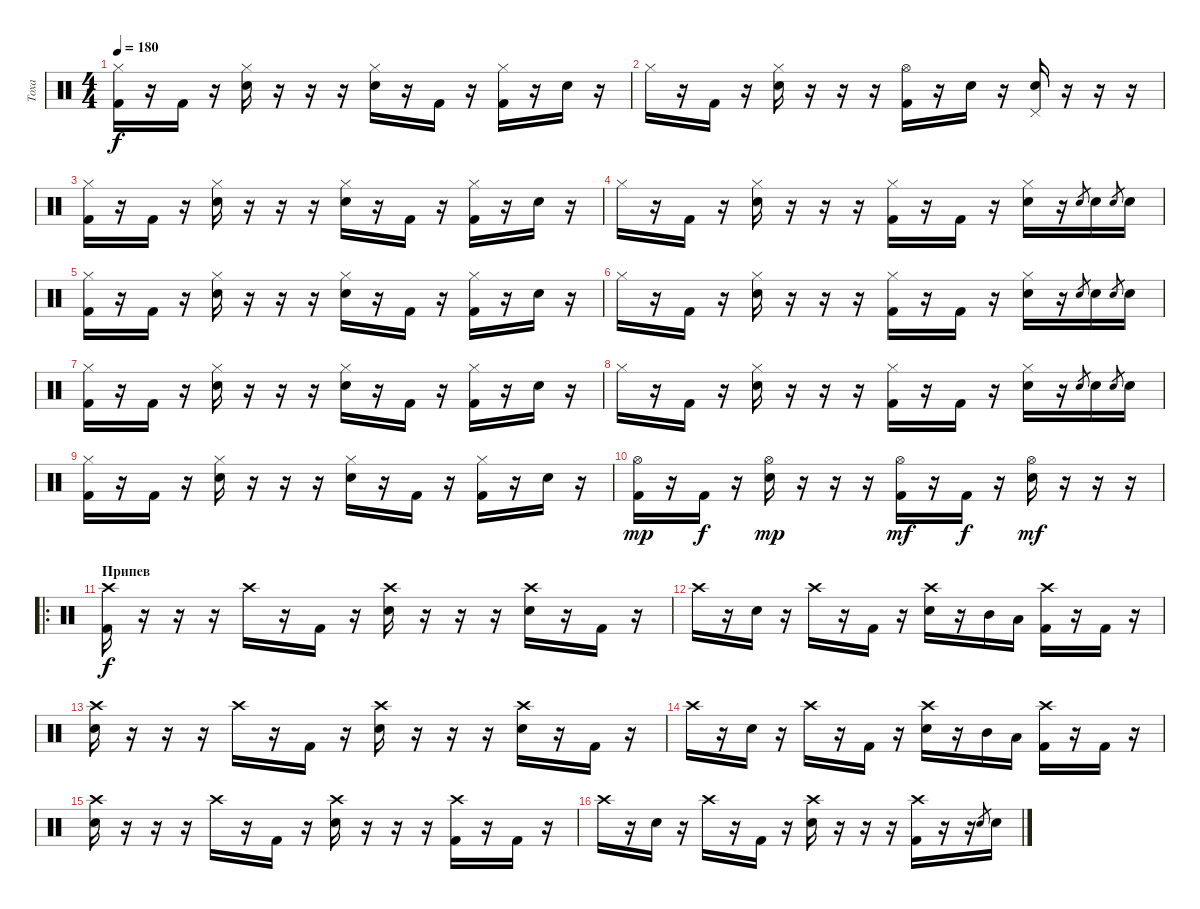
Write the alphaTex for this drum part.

\track ("Тоха" "Тоха") {instrument percussion}
\staff {score}
\articulation defaults
\ts (4 4)
\tempo 180
\clef neutral
\ks c
("Hi-Hat (closed)" "Kick (hit) 2").16{dy f} r.16 "Kick (hit) 2".16 r.16 ("Hi-Hat (closed)" "Electric Snare (hit)").16 r.16 r.16 r.16 ("Hi-Hat (closed)" "Electric Snare (hit)").16 r.16 "Kick (hit) 2".16 r.16 ("Hi-Hat (closed)" "Kick (hit) 2").16 r.16 "Electric Snare (hit)".16 r.16 |
"Hi-Hat (closed)".16 r.16 "Kick (hit) 2".16 r.16 ("Hi-Hat (closed)" "Electric Snare (hit)").16 r.16 r.16 r.16 ("Hi-Hat (open)" "Kick (hit) 2").16 r.16 "Electric Snare (hit)".16 r.16 ("Pedal Hi-Hat (hit)" "Electric Snare (hit)").16 r.16 r.16 r.16 |
("Hi-Hat (closed)" "Kick (hit) 2").16 r.16 "Kick (hit) 2".16 r.16 ("Hi-Hat (closed)" "Electric Snare (hit)").16 r.16 r.16 r.16 ("Hi-Hat (closed)" "Electric Snare (hit)").16 r.16 "Kick (hit) 2".16 r.16 ("Hi-Hat (closed)" "Kick (hit) 2").16 r.16 "Electric Snare (hit)".16 r.16 |
"Hi-Hat (closed)".16 r.16 "Kick (hit) 2".16 r.16 ("Hi-Hat (closed)" "Electric Snare (hit)").16 r.16 r.16 r.16 ("Hi-Hat (closed)" "Kick (hit) 2").16 r.16 "Kick (hit) 2".16 r.16 ("Hi-Hat (closed)" "Electric Snare (hit)").16 r.16 "Electric Snare (hit)".8{gr} "Electric Snare (hit)".16 "Electric Snare (hit)".8{gr} "Electric Snare (hit)".16 |
("Hi-Hat (closed)" "Kick (hit) 2").16 r.16 "Kick (hit) 2".16 r.16 ("Hi-Hat (closed)" "Electric Snare (hit)").16 r.16 r.16 r.16 ("Hi-Hat (closed)" "Electric Snare (hit)").16 r.16 "Kick (hit) 2".16 r.16 ("Hi-Hat (closed)" "Kick (hit) 2").16 r.16 "Electric Snare (hit)".16 r.16 |
"Hi-Hat (closed)".16 r.16 "Kick (hit) 2".16 r.16 ("Hi-Hat (closed)" "Electric Snare (hit)").16 r.16 r.16 r.16 ("Hi-Hat (closed)" "Kick (hit) 2").16 r.16 "Kick (hit) 2".16 r.16 ("Hi-Hat (closed)" "Electric Snare (hit)").16 r.16 "Electric Snare (hit)".8{gr} "Electric Snare (hit)".16 "Electric Snare (hit)".8{gr} "Electric Snare (hit)".16 |
("Hi-Hat (closed)" "Kick (hit) 2").16 r.16 "Kick (hit) 2".16 r.16 ("Hi-Hat (closed)" "Electric Snare (hit)").16 r.16 r.16 r.16 ("Hi-Hat (closed)" "Electric Snare (hit)").16 r.16 "Kick (hit) 2".16 r.16 ("Hi-Hat (closed)" "Kick (hit) 2").16 r.16 "Electric Snare (hit)".16 r.16 |
"Hi-Hat (closed)".16 r.16 "Kick (hit) 2".16 r.16 ("Hi-Hat (closed)" "Electric Snare (hit)").16 r.16 r.16 r.16 ("Hi-Hat (closed)" "Kick (hit) 2").16 r.16 "Kick (hit) 2".16 r.16 ("Hi-Hat (closed)" "Electric Snare (hit)").16 r.16 "Electric Snare (hit)".8{gr} "Electric Snare (hit)".16 "Electric Snare (hit)".8{gr} "Electric Snare (hit)".16 |
("Hi-Hat (closed)" "Kick (hit) 2").16 r.16 "Kick (hit) 2".16 r.16 ("Hi-Hat (closed)" "Electric Snare (hit)").16 r.16 r.16 r.16 ("Hi-Hat (closed)" "Electric Snare (hit)").16 r.16 "Kick (hit) 2".16 r.16 ("Hi-Hat (closed)" "Kick (hit) 2").16 r.16 "Electric Snare (hit)".16 r.16 |
("Hi-Hat (open)" "Kick (hit) 2").16{dy mp} r.16 "Kick (hit) 2".16{dy f} r.16 ("Hi-Hat (open)" "Electric Snare (hit)").16{dy mp} r.16 r.16 r.16 ("Hi-Hat (open)" "Kick (hit) 2").16{dy mf} r.16 "Kick (hit) 2".16{dy f} r.16 ("Hi-Hat (open)" "Electric Snare (hit)").16{dy mf} r.16 r.16 r.16 |
\ro
\section ("" "Припев")
("Crash high (hit)" "Kick (hit) 2").16{dy f} r.16 r.16 r.16 "Crash high (hit)".16 r.16 "Kick (hit) 2".16 r.16 ("Crash high (hit)" "Electric Snare (hit)").16 r.16 r.16 r.16 ("Crash high (hit)" "Electric Snare (hit)").16 r.16 "Kick (hit) 2".16 r.16 |
"Crash high (hit)".16 r.16 "Electric Snare (hit)".16 r.16 "Crash high (hit)".16 r.16 "Kick (hit) 2".16 r.16 ("Crash high (hit)" "Electric Snare (hit)").16 r.16 "Mid Tom (hit)".16 "Low Tom (hit)".16 ("Crash high (hit)" "Kick (hit) 2").16 r.16 "Kick (hit) 2".16 r.16 |
("Crash high (hit)" "Electric Snare (hit)").16 r.16 r.16 r.16 "Crash high (hit)".16 r.16 "Kick (hit) 2".16 r.16 ("Crash high (hit)" "Electric Snare (hit)").16 r.16 r.16 r.16 ("Crash high (hit)" "Electric Snare (hit)").16 r.16 "Kick (hit) 2".16 r.16 |
"Crash high (hit)".16 r.16 "Electric Snare (hit)".16 r.16 "Crash high (hit)".16 r.16 "Kick (hit) 2".16 r.16 ("Crash high (hit)" "Electric Snare (hit)").16 r.16 "Mid Tom (hit)".16 "Low Tom (hit)".16 ("Crash high (hit)" "Kick (hit) 2").16 r.16 "Kick (hit) 2".16 r.16 |
("Crash high (hit)" "Electric Snare (hit)").16 r.16 r.16 r.16 "Crash high (hit)".16 r.16 "Kick (hit) 2".16 r.16 ("Crash high (hit)" "Electric Snare (hit)").16 r.16 r.16 r.16 ("Crash high (hit)" "Kick (hit) 2").16 r.16 "Kick (hit) 2".16 r.16 |
"Crash high (hit)".16 r.16 "Electric Snare (hit)".16 r.16 "Crash high (hit)".16 r.16 "Kick (hit) 2".16 r.16 ("Crash high (hit)" "Electric Snare (hit)").16 r.16 r.16 r.16 ("Crash high (hit)" "Kick (hit) 2").16 r.16 r.16 "Electric Snare (hit)".8{gr} "Electric Snare (hit)".16
